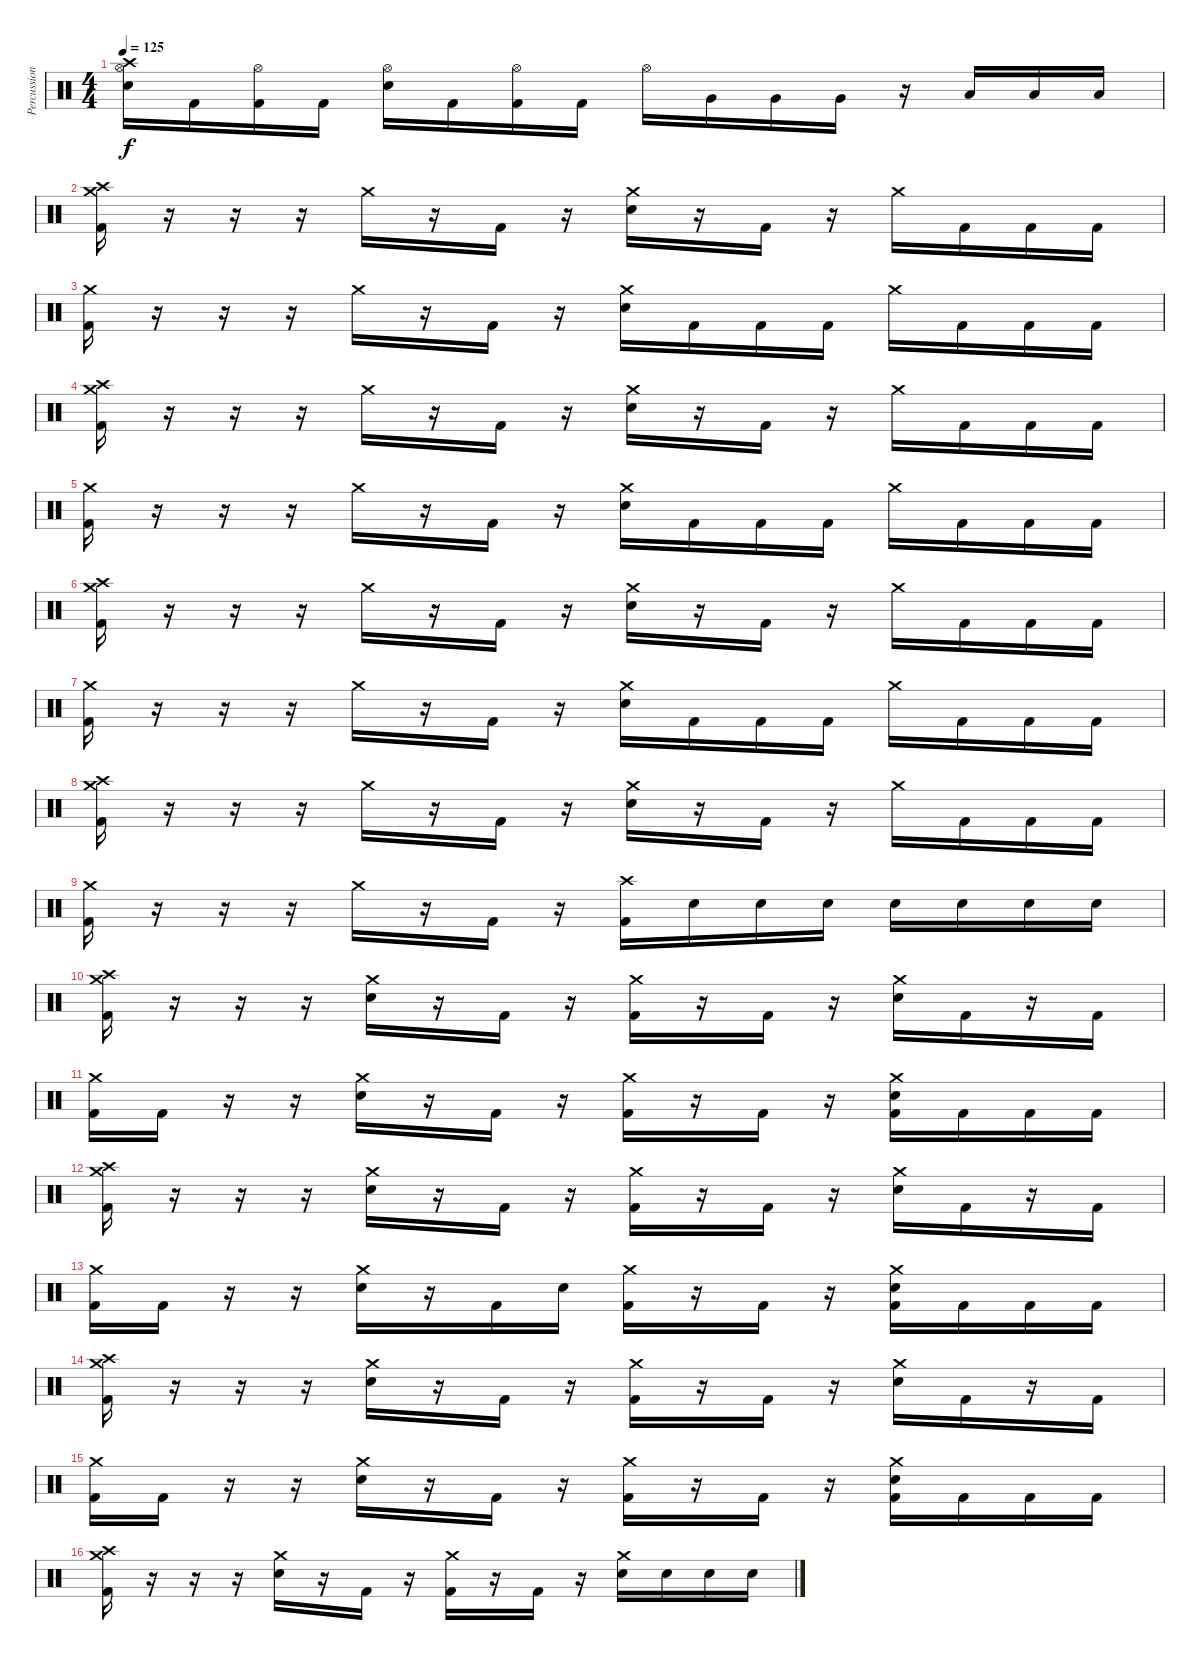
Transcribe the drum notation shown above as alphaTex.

\track ("Percussion" "Percussion") {instrument percussion}
\staff {score}
\articulation defaults
\ts (4 4)
\tempo 125
\clef neutral
\ks c
("Crash high (hit)" "Hi-Hat (open)" "Electric Snare (hit)").16{dy f} "Kick (hit) 2".16 ("Hi-Hat (open)" "Kick (hit) 2").16 "Kick (hit) 2".16 ("Hi-Hat (open)" "Electric Snare (hit)").16 "Kick (hit) 2".16 ("Hi-Hat (open)" "Kick (hit) 2").16 "Kick (hit) 2".16 "Hi-Hat (open)".16 "Very Low Tom (hit)".16 "Very Low Tom (hit)".16 "Very Low Tom (hit)".16 r.16 "Low Floor Tom (hit)".16 "Low Floor Tom (hit)".16 "Low Floor Tom (hit)".16 |
("Crash high (hit)" "Crash medium (hit)" "Kick (hit) 2").16 r.16 r.16 r.16 "Crash medium (hit)".16 r.16 "Kick (hit) 2".16 r.16 ("Crash medium (hit)" "Electric Snare (hit)").16 r.16 "Kick (hit) 2".16 r.16 "Crash medium (hit)".16 "Kick (hit) 2".16 "Kick (hit) 2".16 "Kick (hit) 2".16 |
("Crash medium (hit)" "Kick (hit) 2").16 r.16 r.16 r.16 "Crash medium (hit)".16 r.16 "Kick (hit) 2".16 r.16 ("Crash medium (hit)" "Electric Snare (hit)").16 "Kick (hit) 2".16 "Kick (hit) 2".16 "Kick (hit) 2".16 "Crash medium (hit)".16 "Kick (hit) 2".16 "Kick (hit) 2".16 "Kick (hit) 2".16 |
("Crash high (hit)" "Crash medium (hit)" "Kick (hit) 2").16 r.16 r.16 r.16 "Crash medium (hit)".16 r.16 "Kick (hit) 2".16 r.16 ("Crash medium (hit)" "Electric Snare (hit)").16 r.16 "Kick (hit) 2".16 r.16 "Crash medium (hit)".16 "Kick (hit) 2".16 "Kick (hit) 2".16 "Kick (hit) 2".16 |
("Crash medium (hit)" "Kick (hit) 2").16 r.16 r.16 r.16 "Crash medium (hit)".16 r.16 "Kick (hit) 2".16 r.16 ("Crash medium (hit)" "Electric Snare (hit)").16 "Kick (hit) 2".16 "Kick (hit) 2".16 "Kick (hit) 2".16 "Crash medium (hit)".16 "Kick (hit) 2".16 "Kick (hit) 2".16 "Kick (hit) 2".16 |
("Crash high (hit)" "Crash medium (hit)" "Kick (hit) 2").16 r.16 r.16 r.16 "Crash medium (hit)".16 r.16 "Kick (hit) 2".16 r.16 ("Crash medium (hit)" "Electric Snare (hit)").16 r.16 "Kick (hit) 2".16 r.16 "Crash medium (hit)".16 "Kick (hit) 2".16 "Kick (hit) 2".16 "Kick (hit) 2".16 |
("Crash medium (hit)" "Kick (hit) 2").16 r.16 r.16 r.16 "Crash medium (hit)".16 r.16 "Kick (hit) 2".16 r.16 ("Crash medium (hit)" "Electric Snare (hit)").16 "Kick (hit) 2".16 "Kick (hit) 2".16 "Kick (hit) 2".16 "Crash medium (hit)".16 "Kick (hit) 2".16 "Kick (hit) 2".16 "Kick (hit) 2".16 |
("Crash high (hit)" "Crash medium (hit)" "Kick (hit) 2").16 r.16 r.16 r.16 "Crash medium (hit)".16 r.16 "Kick (hit) 2".16 r.16 ("Crash medium (hit)" "Electric Snare (hit)").16 r.16 "Kick (hit) 2".16 r.16 "Crash medium (hit)".16 "Kick (hit) 2".16 "Kick (hit) 2".16 "Kick (hit) 2".16 |
("Crash medium (hit)" "Kick (hit) 2").16 r.16 r.16 r.16 "Crash medium (hit)".16 r.16 "Kick (hit) 2".16 r.16 ("Crash high (hit)" "Kick (hit) 2").16 "Electric Snare (hit)".16 "Electric Snare (hit)".16 "Electric Snare (hit)".16 "Electric Snare (hit)".16 "Electric Snare (hit)".16 "Electric Snare (hit)".16 "Electric Snare (hit)".16 |
("Crash high (hit)" "Crash medium (hit)" "Kick (hit) 2").16 r.16 r.16 r.16 ("Crash medium (hit)" "Electric Snare (hit)").16 r.16 "Kick (hit) 2".16 r.16 ("Crash medium (hit)" "Kick (hit) 2").16 r.16 "Kick (hit) 2".16 r.16 ("Crash medium (hit)" "Electric Snare (hit)").16 "Kick (hit) 2".16 r.16 "Kick (hit) 2".16 |
("Crash medium (hit)" "Kick (hit) 2").16 "Kick (hit) 2".16 r.16 r.16 ("Crash medium (hit)" "Electric Snare (hit)").16 r.16 "Kick (hit) 2".16 r.16 ("Crash medium (hit)" "Kick (hit) 2").16 r.16 "Kick (hit) 2".16 r.16 ("Crash medium (hit)" "Electric Snare (hit)" "Kick (hit) 2").16 "Kick (hit) 2".16 "Kick (hit) 2".16 "Kick (hit) 2".16 |
("Crash high (hit)" "Crash medium (hit)" "Kick (hit) 2").16 r.16 r.16 r.16 ("Crash medium (hit)" "Electric Snare (hit)").16 r.16 "Kick (hit) 2".16 r.16 ("Crash medium (hit)" "Kick (hit) 2").16 r.16 "Kick (hit) 2".16 r.16 ("Crash medium (hit)" "Electric Snare (hit)").16 "Kick (hit) 2".16 r.16 "Kick (hit) 2".16 |
("Crash medium (hit)" "Kick (hit) 2").16 "Kick (hit) 2".16 r.16 r.16 ("Crash medium (hit)" "Electric Snare (hit)").16 r.16 "Kick (hit) 2".16 "Electric Snare (hit)".16 ("Crash medium (hit)" "Kick (hit) 2").16 r.16 "Kick (hit) 2".16 r.16 ("Crash medium (hit)" "Electric Snare (hit)" "Kick (hit) 2").16 "Kick (hit) 2".16 "Kick (hit) 2".16 "Kick (hit) 2".16 |
("Crash high (hit)" "Crash medium (hit)" "Kick (hit) 2").16 r.16 r.16 r.16 ("Crash medium (hit)" "Electric Snare (hit)").16 r.16 "Kick (hit) 2".16 r.16 ("Crash medium (hit)" "Kick (hit) 2").16 r.16 "Kick (hit) 2".16 r.16 ("Crash medium (hit)" "Electric Snare (hit)").16 "Kick (hit) 2".16 r.16 "Kick (hit) 2".16 |
("Crash medium (hit)" "Kick (hit) 2").16 "Kick (hit) 2".16 r.16 r.16 ("Crash medium (hit)" "Electric Snare (hit)").16 r.16 "Kick (hit) 2".16 r.16 ("Crash medium (hit)" "Kick (hit) 2").16 r.16 "Kick (hit) 2".16 r.16 ("Crash medium (hit)" "Electric Snare (hit)" "Kick (hit) 2").16 "Kick (hit) 2".16 "Kick (hit) 2".16 "Kick (hit) 2".16 |
("Crash high (hit)" "Crash medium (hit)" "Kick (hit) 2").16 r.16 r.16 r.16 ("Crash medium (hit)" "Electric Snare (hit)").16 r.16 "Kick (hit) 2".16 r.16 ("Crash medium (hit)" "Kick (hit) 2").16 r.16 "Kick (hit) 2".16 r.16 ("Crash medium (hit)" "Electric Snare (hit)").16 "Electric Snare (hit)".16 "Electric Snare (hit)".16 "Electric Snare (hit)".16
